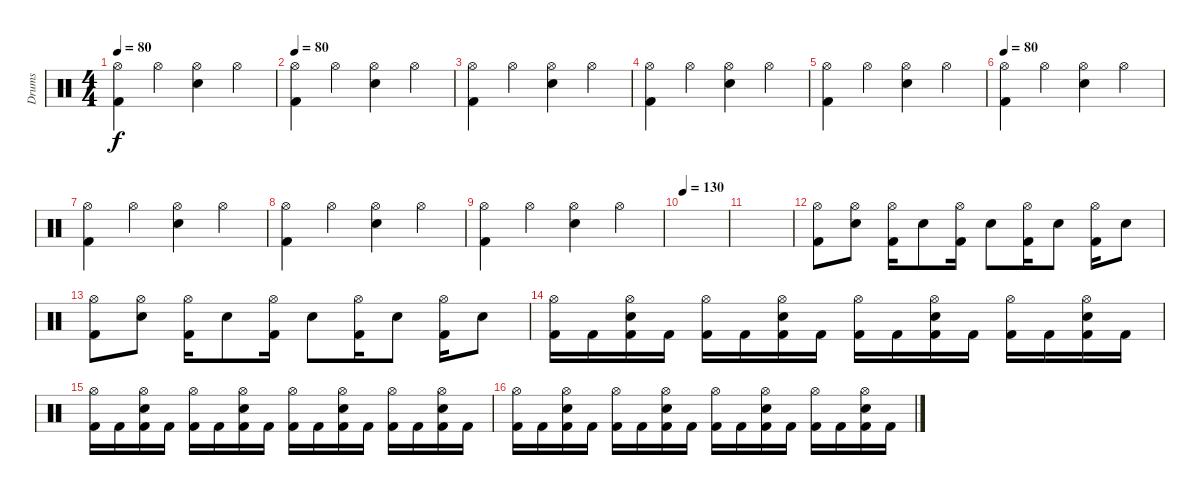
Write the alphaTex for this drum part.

\track ("Drums" "Drums") {instrument percussion}
\staff {score}
\articulation defaults
\ts (4 4)
\tempo 80
\clef neutral
\ks c
("Hi-Hat (open)" "Kick (hit) 2").4{dy f} "Hi-Hat (open)".4 ("Hi-Hat (open)" "Electric Snare (hit)").4 "Hi-Hat (open)".4 |
\tempo 80
("Hi-Hat (open)" "Kick (hit) 2").4 "Hi-Hat (open)".4 ("Hi-Hat (open)" "Electric Snare (hit)").4 "Hi-Hat (open)".4 |
("Hi-Hat (open)" "Kick (hit) 2").4 "Hi-Hat (open)".4 ("Hi-Hat (open)" "Electric Snare (hit)").4 "Hi-Hat (open)".4 |
("Hi-Hat (open)" "Kick (hit) 2").4 "Hi-Hat (open)".4 ("Hi-Hat (open)" "Electric Snare (hit)").4 "Hi-Hat (open)".4 |
("Hi-Hat (open)" "Kick (hit) 2").4 "Hi-Hat (open)".4 ("Hi-Hat (open)" "Electric Snare (hit)").4 "Hi-Hat (open)".4 |
\tempo 80
("Hi-Hat (open)" "Kick (hit) 2").4 "Hi-Hat (open)".4 ("Hi-Hat (open)" "Electric Snare (hit)").4 "Hi-Hat (open)".4 |
("Hi-Hat (open)" "Kick (hit) 2").4 "Hi-Hat (open)".4 ("Hi-Hat (open)" "Electric Snare (hit)").4 "Hi-Hat (open)".4 |
("Hi-Hat (open)" "Kick (hit) 2").4 "Hi-Hat (open)".4 ("Hi-Hat (open)" "Electric Snare (hit)").4 "Hi-Hat (open)".4 |
("Hi-Hat (open)" "Kick (hit) 2").4 "Hi-Hat (open)".4 ("Hi-Hat (open)" "Electric Snare (hit)").4 "Hi-Hat (open)".4 |
\tempo 130
|
|
("Hi-Hat (open)" "Kick (hit) 2").8 ("Hi-Hat (open)" "Electric Snare (hit)").8 ("Hi-Hat (open)" "Kick (hit) 2").16 "Electric Snare (hit)".8 ("Hi-Hat (open)" "Kick (hit) 2").16 "Electric Snare (hit)".8 ("Hi-Hat (open)" "Kick (hit) 2").16 "Electric Snare (hit)".8 ("Hi-Hat (open)" "Kick (hit) 2").16 "Electric Snare (hit)".8 |
("Hi-Hat (open)" "Kick (hit) 2").8 ("Hi-Hat (open)" "Electric Snare (hit)").8 ("Hi-Hat (open)" "Kick (hit) 2").16 "Electric Snare (hit)".8 ("Hi-Hat (open)" "Kick (hit) 2").16 "Electric Snare (hit)".8 ("Hi-Hat (open)" "Kick (hit) 2").16 "Electric Snare (hit)".8 ("Hi-Hat (open)" "Kick (hit) 2").16 "Electric Snare (hit)".8 |
("Hi-Hat (open)" "Kick (hit) 2").16 "Kick (hit) 2".16 ("Hi-Hat (open)" "Electric Snare (hit)" "Kick (hit) 2").16 "Kick (hit) 2".16 ("Hi-Hat (open)" "Kick (hit) 2").16 "Kick (hit) 2".16 ("Hi-Hat (open)" "Electric Snare (hit)" "Kick (hit) 2").16 "Kick (hit) 2".16 ("Hi-Hat (open)" "Kick (hit) 2").16 "Kick (hit) 2".16 ("Hi-Hat (open)" "Electric Snare (hit)" "Kick (hit) 2").16 "Kick (hit) 2".16 ("Hi-Hat (open)" "Kick (hit) 2").16 "Kick (hit) 2".16 ("Hi-Hat (open)" "Electric Snare (hit)" "Kick (hit) 2").16 "Kick (hit) 2".16 |
("Hi-Hat (open)" "Kick (hit) 2").16 "Kick (hit) 2".16 ("Hi-Hat (open)" "Electric Snare (hit)" "Kick (hit) 2").16 "Kick (hit) 2".16 ("Hi-Hat (open)" "Kick (hit) 2").16 "Kick (hit) 2".16 ("Hi-Hat (open)" "Electric Snare (hit)" "Kick (hit) 2").16 "Kick (hit) 2".16 ("Hi-Hat (open)" "Kick (hit) 2").16 "Kick (hit) 2".16 ("Hi-Hat (open)" "Electric Snare (hit)" "Kick (hit) 2").16 "Kick (hit) 2".16 ("Hi-Hat (open)" "Kick (hit) 2").16 "Kick (hit) 2".16 ("Hi-Hat (open)" "Electric Snare (hit)" "Kick (hit) 2").16 "Kick (hit) 2".16 |
("Hi-Hat (open)" "Kick (hit) 2").16 "Kick (hit) 2".16 ("Hi-Hat (open)" "Electric Snare (hit)" "Kick (hit) 2").16 "Kick (hit) 2".16 ("Hi-Hat (open)" "Kick (hit) 2").16 "Kick (hit) 2".16 ("Hi-Hat (open)" "Electric Snare (hit)" "Kick (hit) 2").16 "Kick (hit) 2".16 ("Hi-Hat (open)" "Kick (hit) 2").16 "Kick (hit) 2".16 ("Hi-Hat (open)" "Electric Snare (hit)" "Kick (hit) 2").16 "Kick (hit) 2".16 ("Hi-Hat (open)" "Kick (hit) 2").16 "Kick (hit) 2".16 ("Hi-Hat (open)" "Electric Snare (hit)" "Kick (hit) 2").16 "Kick (hit) 2".16
